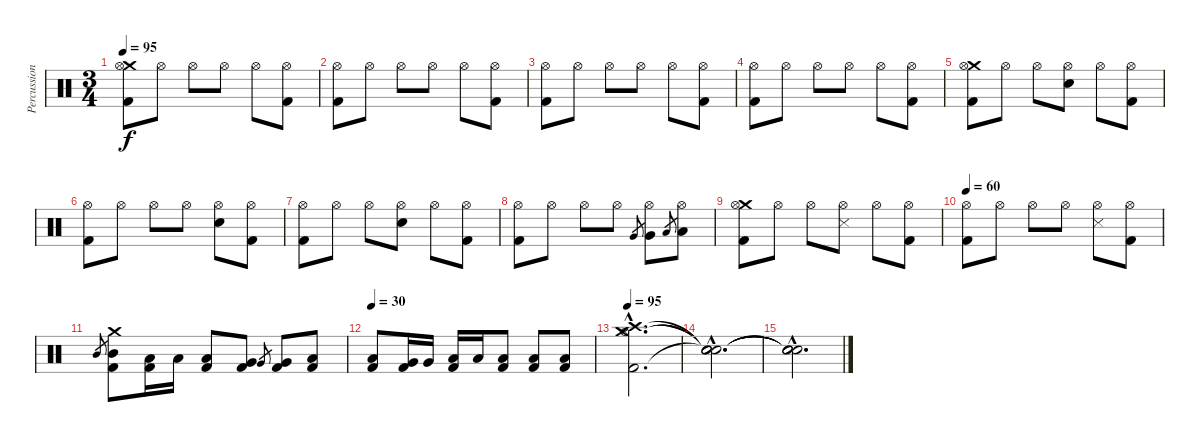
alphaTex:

\track ("Percussion" "Percussion") {instrument percussion}
\staff {score}
\articulation defaults
\ts (3 4)
\tempo 95
\clef neutral
\ks c
("Crash medium (hit)" "Hi-Hat (open)" "Kick (hit) 2").8{dy f} "Hi-Hat (open)".8 "Hi-Hat (open)".8 "Hi-Hat (open)".8 "Hi-Hat (open)".8 ("Hi-Hat (open)" "Kick (hit) 2").8 |
("Hi-Hat (open)" "Kick (hit) 2").8 "Hi-Hat (open)".8 "Hi-Hat (open)".8 "Hi-Hat (open)".8 "Hi-Hat (open)".8 ("Hi-Hat (open)" "Kick (hit) 2").8 |
("Hi-Hat (open)" "Kick (hit) 2").8 "Hi-Hat (open)".8 "Hi-Hat (open)".8 "Hi-Hat (open)".8 "Hi-Hat (open)".8 ("Hi-Hat (open)" "Kick (hit) 2").8 |
("Hi-Hat (open)" "Kick (hit) 2").8 "Hi-Hat (open)".8 "Hi-Hat (open)".8 "Hi-Hat (open)".8 "Hi-Hat (open)".8 ("Hi-Hat (open)" "Kick (hit) 2").8 |
("Crash medium (hit)" "Hi-Hat (open)" "Kick (hit) 2").8 "Hi-Hat (open)".8 "Hi-Hat (open)".8 ("Hi-Hat (open)" "Electric Snare (hit)").8 "Hi-Hat (open)".8 ("Hi-Hat (open)" "Kick (hit) 2").8 |
("Hi-Hat (open)" "Kick (hit) 2").8 "Hi-Hat (open)".8 "Hi-Hat (open)".8 "Hi-Hat (open)".8 ("Hi-Hat (open)" "Electric Snare (hit)").8 ("Hi-Hat (open)" "Kick (hit) 2").8 |
("Hi-Hat (open)" "Kick (hit) 2").8 "Hi-Hat (open)".8 "Hi-Hat (open)".8 ("Hi-Hat (open)" "Electric Snare (hit)").8 "Hi-Hat (open)".8 ("Hi-Hat (open)" "Kick (hit) 2").8 |
("Hi-Hat (open)" "Kick (hit) 2").8 "Hi-Hat (open)".8 "Hi-Hat (open)".8 "Hi-Hat (open)".8 "Very Low Tom (hit)".8{gr} ("Hi-Hat (open)" "Very Low Tom (hit)").8 "Low Floor Tom (hit)".8{gr} ("Hi-Hat (open)" "Low Floor Tom (hit)").8 |
("Crash medium (hit)" "Hi-Hat (open)" "Kick (hit) 2").8 "Hi-Hat (open)".8 "Hi-Hat (open)".8 ("Hi-Hat (open)" "Snare (side stick) 3").8 "Hi-Hat (open)".8 ("Hi-Hat (open)" "Kick (hit) 2").8 |
\tempo 60
("Hi-Hat (open)" "Kick (hit) 2").8 "Hi-Hat (open)".8 "Hi-Hat (open)".8 "Hi-Hat (open)".8 ("Hi-Hat (open)" "Snare (side stick) 3").8 ("Hi-Hat (open)" "Kick (hit) 2").8 |
"Mid Tom (hit)".8{gr} ("Crash medium (hit)" "Mid Tom (hit)" "Kick (hit) 2").8 ("Low Tom (hit)" "Kick (hit) 2").16 "Low Tom (hit)".16 ("Low Tom (hit)" "Kick (hit) 2").8 ("Very Low Tom (hit)" "Kick (hit) 2").8 "Very Low Tom (hit)".8{gr} ("Very Low Tom (hit)" "Kick (hit) 2").8 ("Low Floor Tom (hit)" "Kick (hit) 2").8 |
\tempo 30
("Low Floor Tom (hit)" "Kick (hit) 2").8 ("Very Low Tom (hit)" "Kick (hit) 2").16 "Very Low Tom (hit)".16 ("Low Floor Tom (hit)" "Kick (hit) 2").16 "Low Floor Tom (hit)".16 ("Low Floor Tom (hit)" "Kick (hit) 2").8 ("Low Floor Tom (hit)" "Kick (hit) 2").8 ("Low Floor Tom (hit)" "Kick (hit) 2").8 |
\tempo 95
("Crash medium (hit)"{hac} "Hi-Hat (open)"{hac} "Crash high (hit)"{hac} "Kick (hit) 2"{hac}).2{d} |
("Snare (hit)"{hac t} "Snare (hit)"{hac t} "Snare (hit)"{hac t} "Snare (hit)"{hac t}).2{d} |
("Snare (hit)"{hac t} "Snare (hit)"{hac t} "Snare (hit)"{hac t} "Snare (hit)"{hac t}).2{d}
